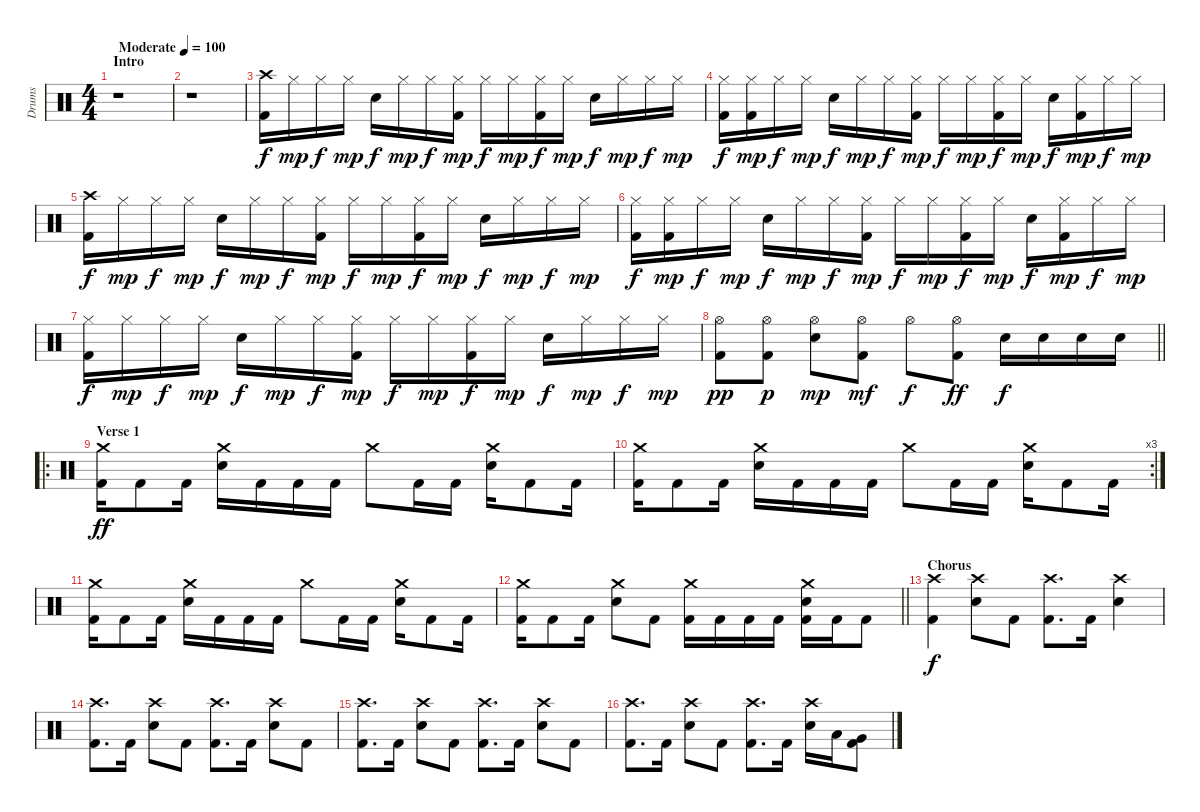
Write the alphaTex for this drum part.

\track ("Drums" "Drums") {instrument percussion}
\staff {score}
\articulation defaults
\ts (4 4)
\section ("" "Intro")
\tempo (100 "Moderate")
\clef neutral
\ks c
r.1{dy f} |
r.1 |
("Crash high (hit)" "Kick (hit) 2").16 "Hi-Hat (closed)".16{dy mp} "Hi-Hat (closed)".16{dy f} "Hi-Hat (closed)".16{dy mp} "Snare (hit) 2".16{dy f} "Hi-Hat (closed)".16{dy mp} "Hi-Hat (closed)".16{dy f} ("Hi-Hat (closed)" "Kick (hit) 2").16{dy mp} "Hi-Hat (closed)".16{dy f} "Hi-Hat (closed)".16{dy mp} ("Hi-Hat (closed)" "Kick (hit) 2").16{dy f} "Hi-Hat (closed)".16{dy mp} "Snare (hit) 2".16{dy f} "Hi-Hat (closed)".16{dy mp} "Hi-Hat (closed)".16{dy f} "Hi-Hat (closed)".16{dy mp} |
("Hi-Hat (closed)" "Kick (hit) 2").16{dy f} ("Hi-Hat (closed)" "Kick (hit) 2").16{dy mp} "Hi-Hat (closed)".16{dy f} "Hi-Hat (closed)".16{dy mp} "Snare (hit) 2".16{dy f} "Hi-Hat (closed)".16{dy mp} "Hi-Hat (closed)".16{dy f} ("Hi-Hat (closed)" "Kick (hit) 2").16{dy mp} "Hi-Hat (closed)".16{dy f} "Hi-Hat (closed)".16{dy mp} ("Hi-Hat (closed)" "Kick (hit) 2").16{dy f} "Hi-Hat (closed)".16{dy mp} "Snare (hit) 2".16{dy f} ("Hi-Hat (closed)" "Kick (hit) 2").16{dy mp} "Hi-Hat (closed)".16{dy f} "Hi-Hat (closed)".16{dy mp} |
("Crash high (hit)" "Kick (hit) 2").16{dy f} "Hi-Hat (closed)".16{dy mp} "Hi-Hat (closed)".16{dy f} "Hi-Hat (closed)".16{dy mp} "Snare (hit) 2".16{dy f} "Hi-Hat (closed)".16{dy mp} "Hi-Hat (closed)".16{dy f} ("Hi-Hat (closed)" "Kick (hit) 2").16{dy mp} "Hi-Hat (closed)".16{dy f} "Hi-Hat (closed)".16{dy mp} ("Hi-Hat (closed)" "Kick (hit) 2").16{dy f} "Hi-Hat (closed)".16{dy mp} "Snare (hit) 2".16{dy f} "Hi-Hat (closed)".16{dy mp} "Hi-Hat (closed)".16{dy f} "Hi-Hat (closed)".16{dy mp} |
("Hi-Hat (closed)" "Kick (hit) 2").16{dy f} ("Hi-Hat (closed)" "Kick (hit) 2").16{dy mp} "Hi-Hat (closed)".16{dy f} "Hi-Hat (closed)".16{dy mp} "Snare (hit) 2".16{dy f} "Hi-Hat (closed)".16{dy mp} "Hi-Hat (closed)".16{dy f} ("Hi-Hat (closed)" "Kick (hit) 2").16{dy mp} "Hi-Hat (closed)".16{dy f} "Hi-Hat (closed)".16{dy mp} ("Hi-Hat (closed)" "Kick (hit) 2").16{dy f} "Hi-Hat (closed)".16{dy mp} "Snare (hit) 2".16{dy f} ("Hi-Hat (closed)" "Kick (hit) 2").16{dy mp} "Hi-Hat (closed)".16{dy f} "Hi-Hat (closed)".16{dy mp} |
("Hi-Hat (closed)" "Kick (hit) 2").16{dy f} "Hi-Hat (closed)".16{dy mp} "Hi-Hat (closed)".16{dy f} "Hi-Hat (closed)".16{dy mp} "Snare (hit) 2".16{dy f} "Hi-Hat (closed)".16{dy mp} "Hi-Hat (closed)".16{dy f} ("Hi-Hat (closed)" "Kick (hit) 2").16{dy mp} "Hi-Hat (closed)".16{dy f} "Hi-Hat (closed)".16{dy mp} ("Hi-Hat (closed)" "Kick (hit) 2").16{dy f} "Hi-Hat (closed)".16{dy mp} "Snare (hit) 2".16{dy f} "Hi-Hat (closed)".16{dy mp} "Hi-Hat (closed)".16{dy f} "Hi-Hat (closed)".16{dy mp} |
\barLineRight lightlight
("Hi-Hat (open)" "Kick (hit) 2").8{dy pp} ("Hi-Hat (open)" "Kick (hit) 2").8{dy p} ("Hi-Hat (open)" "Snare (hit) 2").8{dy mp} ("Hi-Hat (open)" "Kick (hit) 2").8{dy mf} "Hi-Hat (open)".8{dy f} ("Hi-Hat (open)" "Kick (hit) 2").8{dy ff} "Snare (hit) 2".16{dy f} "Snare (hit) 2".16 "Snare (hit) 2".16 "Snare (hit) 2".16 |
\ro
\section ("" "Verse 1")
("Crash medium (hit)" "Kick (hit) 2").16{dy ff} "Kick (hit) 2".8 "Kick (hit) 2".16 ("Crash medium (hit)" "Snare (hit) 2").16 "Kick (hit) 2".16 "Kick (hit) 2".16 "Kick (hit) 2".16 "Crash medium (hit)".8 "Kick (hit) 2".16 "Kick (hit) 2".16 ("Crash medium (hit)" "Snare (hit) 2").16 "Kick (hit) 2".8 "Kick (hit) 2".16 |
\rc 3
("Crash medium (hit)" "Kick (hit) 2").16 "Kick (hit) 2".8 "Kick (hit) 2".16 ("Crash medium (hit)" "Snare (hit) 2").16 "Kick (hit) 2".16 "Kick (hit) 2".16 "Kick (hit) 2".16 "Crash medium (hit)".8 "Kick (hit) 2".16 "Kick (hit) 2".16 ("Crash medium (hit)" "Snare (hit) 2").16 "Kick (hit) 2".8 "Kick (hit) 2".16 |
("Crash medium (hit)" "Kick (hit) 2").16 "Kick (hit) 2".8 "Kick (hit) 2".16 ("Crash medium (hit)" "Snare (hit) 2").16 "Kick (hit) 2".16 "Kick (hit) 2".16 "Kick (hit) 2".16 "Crash medium (hit)".8 "Kick (hit) 2".16 "Kick (hit) 2".16 ("Crash medium (hit)" "Snare (hit) 2").16 "Kick (hit) 2".8 "Kick (hit) 2".16 |
\barLineRight lightlight
("Crash medium (hit)" "Kick (hit) 2").16 "Kick (hit) 2".8 "Kick (hit) 2".16 ("Crash medium (hit)" "Snare (hit) 2").8 "Kick (hit) 2".8 ("Crash medium (hit)" "Kick (hit) 2").16 "Kick (hit) 2".16 "Kick (hit) 2".16 "Kick (hit) 2".16 ("Crash medium (hit)" "Kick (hit) 2" "Snare (hit) 2").16 "Kick (hit) 2".16 "Kick (hit) 2".8 |
\section ("" "Chorus")
("Crash high (hit)" "Kick (hit) 2").4{dy f} ("Crash high (hit)" "Snare (hit) 2").8 "Kick (hit) 2".8 ("Crash high (hit)" "Kick (hit) 2").8{d} "Kick (hit) 2".16 ("Crash high (hit)" "Snare (hit) 2").4 |
("Crash high (hit)" "Kick (hit) 2").8{d} "Kick (hit) 2".16 ("Crash high (hit)" "Snare (hit) 2").8 "Kick (hit) 2".8 ("Crash high (hit)" "Kick (hit) 2").8{d} "Kick (hit) 2".16 ("Crash high (hit)" "Snare (hit) 2").8 "Kick (hit) 2".8 |
("Crash high (hit)" "Kick (hit) 2").8{d} "Kick (hit) 2".16 ("Crash high (hit)" "Snare (hit) 2").8 "Kick (hit) 2".8 ("Crash high (hit)" "Kick (hit) 2").8{d} "Kick (hit) 2".16 ("Crash high (hit)" "Snare (hit) 2").8 "Kick (hit) 2".8 |
("Crash high (hit)" "Kick (hit) 2").8{d} "Kick (hit) 2".16 ("Crash high (hit)" "Snare (hit) 2").8 "Kick (hit) 2".8 ("Crash high (hit)" "Kick (hit) 2").8{d} "Kick (hit) 2".16 ("Crash high (hit)" "Snare (hit) 2").16 "Low Tom (hit)".16 ("Very Low Tom (hit)" "Kick (hit) 2").8
